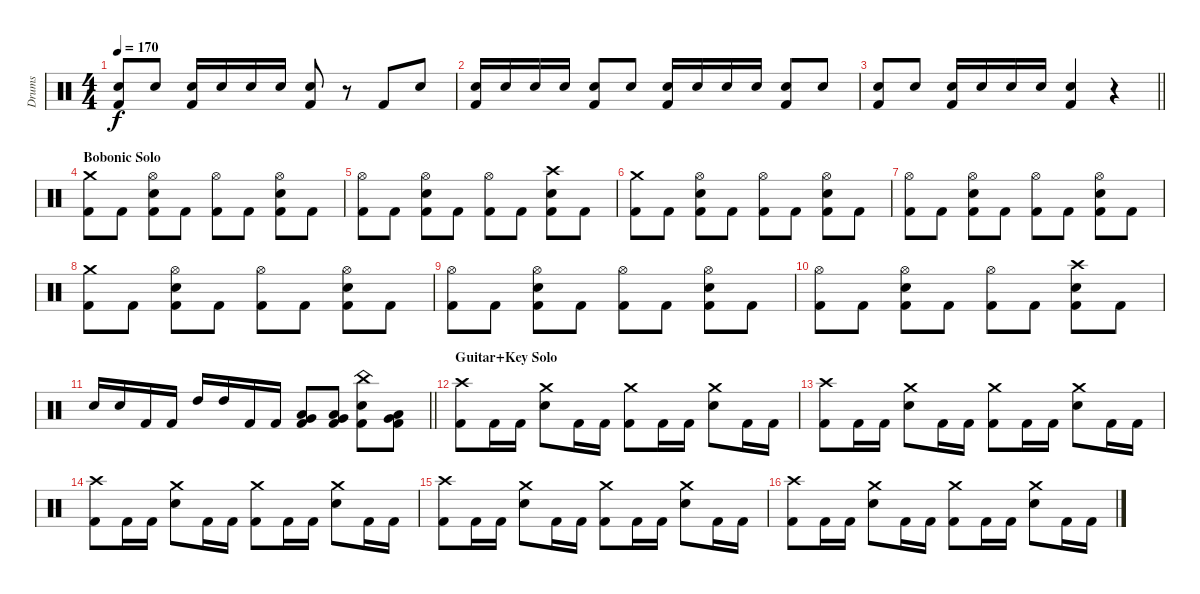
\track ("Drums" "Drums") {instrument percussion}
\staff {score}
\articulation defaults
\ts (4 4)
\tempo 170
\clef neutral
\ks c
("Snare (hit) 2" "Kick (hit) 2").8{dy f} "Snare (hit) 2".8 ("Snare (hit) 2" "Kick (hit) 2").16 "Snare (hit) 2".16 "Snare (hit) 2".16 "Snare (hit) 2".16 ("Snare (hit) 2" "Kick (hit) 2").8 r.8 "Kick (hit) 2".8 "Snare (hit) 2".8 |
("Snare (hit) 2" "Kick (hit) 2").16 "Snare (hit) 2".16 "Snare (hit) 2".16 "Snare (hit) 2".16 ("Snare (hit) 2" "Kick (hit) 2").8 "Snare (hit) 2".8 ("Snare (hit) 2" "Kick (hit) 2").16 "Snare (hit) 2".16 "Snare (hit) 2".16 "Snare (hit) 2".16 ("Snare (hit) 2" "Kick (hit) 2").8 "Snare (hit) 2".8 |
\barLineRight lightlight
("Snare (hit) 2" "Kick (hit) 2").8 "Snare (hit) 2".8 ("Snare (hit) 2" "Kick (hit) 2").16 "Snare (hit) 2".16 "Snare (hit) 2".16 "Snare (hit) 2".16 ("Snare (hit) 2" "Kick (hit) 2").4 r.4 |
\section ("" "Bobonic Solo")
("Crash medium (hit)" "Kick (hit) 2").8 "Kick (hit) 2".8 ("Hi-Hat (open)" "Snare (hit) 2" "Kick (hit) 2").8 "Kick (hit) 2".8 ("Hi-Hat (open)" "Kick (hit) 2").8 "Kick (hit) 2".8 ("Hi-Hat (open)" "Snare (hit) 2" "Kick (hit) 2").8 "Kick (hit) 2".8 |
("Hi-Hat (open)" "Kick (hit) 2").8 "Kick (hit) 2".8 ("Hi-Hat (open)" "Snare (hit) 2" "Kick (hit) 2").8 "Kick (hit) 2".8 ("Hi-Hat (open)" "Kick (hit) 2").8 "Kick (hit) 2".8 ("Crash high (hit)" "Snare (hit) 2" "Kick (hit) 2").8 "Kick (hit) 2".8 |
("Crash medium (hit)" "Kick (hit) 2").8 "Kick (hit) 2".8 ("Hi-Hat (open)" "Snare (hit) 2" "Kick (hit) 2").8 "Kick (hit) 2".8 ("Hi-Hat (open)" "Kick (hit) 2").8 "Kick (hit) 2".8 ("Hi-Hat (open)" "Snare (hit) 2" "Kick (hit) 2").8 "Kick (hit) 2".8 |
("Hi-Hat (open)" "Kick (hit) 2").8 "Kick (hit) 2".8 ("Hi-Hat (open)" "Snare (hit) 2" "Kick (hit) 2").8 "Kick (hit) 2".8 ("Hi-Hat (open)" "Kick (hit) 2").8 "Kick (hit) 2".8 ("Hi-Hat (open)" "Snare (hit) 2" "Kick (hit) 2").8 "Kick (hit) 2".8 |
("Crash medium (hit)" "Kick (hit) 2").8 "Kick (hit) 2".8 ("Hi-Hat (open)" "Snare (hit) 2" "Kick (hit) 2").8 "Kick (hit) 2".8 ("Hi-Hat (open)" "Kick (hit) 2").8 "Kick (hit) 2".8 ("Hi-Hat (open)" "Snare (hit) 2" "Kick (hit) 2").8 "Kick (hit) 2".8 |
("Hi-Hat (open)" "Kick (hit) 2").8 "Kick (hit) 2".8 ("Hi-Hat (open)" "Snare (hit) 2" "Kick (hit) 2").8 "Kick (hit) 2".8 ("Hi-Hat (open)" "Kick (hit) 2").8 "Kick (hit) 2".8 ("Hi-Hat (open)" "Snare (hit) 2" "Kick (hit) 2").8 "Kick (hit) 2".8 |
("Hi-Hat (open)" "Kick (hit) 2").8 "Kick (hit) 2".8 ("Hi-Hat (open)" "Snare (hit) 2" "Kick (hit) 2").8 "Kick (hit) 2".8 ("Hi-Hat (open)" "Kick (hit) 2").8 "Kick (hit) 2".8 ("Crash high (hit)" "Snare (hit) 2" "Kick (hit) 2").8 "Kick (hit) 2".8 |
\barLineRight lightlight "Snare (hit) 2".16 "Snare (hit) 2".16 "Kick (hit) 2".16 "Kick (hit) 2".16 "High Tom (hit)".16 "High Tom (hit)".16 "Kick (hit) 2".16 "Kick (hit) 2".16
("Low Tom (hit)" "Very Low Tom (hit)" "Kick (hit) 2").8 ("Low Tom (hit)" "Very Low Tom (hit)" "Kick (hit) 2").8 ("China (hit)" "Snare (hit) 2" "Kick (hit) 2").8 ("Low Tom (hit)" "Very Low Tom (hit)" "Kick (hit) 2").8 |
\section ("" "Guitar+Key Solo")
("Crash high (hit)" "Kick (hit) 2").8 "Kick (hit) 2".16 "Kick (hit) 2".16 ("Crash medium (hit)" "Snare (hit) 2").8 "Kick (hit) 2".16 "Kick (hit) 2".16 ("Crash medium (hit)" "Kick (hit) 2").8 "Kick (hit) 2".16 "Kick (hit) 2".16 ("Crash medium (hit)" "Snare (hit) 2").8 "Kick (hit) 2".16 "Kick (hit) 2".16 |
("Crash high (hit)" "Kick (hit) 2").8 "Kick (hit) 2".16 "Kick (hit) 2".16 ("Crash medium (hit)" "Snare (hit) 2").8 "Kick (hit) 2".16 "Kick (hit) 2".16 ("Crash medium (hit)" "Kick (hit) 2").8 "Kick (hit) 2".16 "Kick (hit) 2".16 ("Crash medium (hit)" "Snare (hit) 2").8 "Kick (hit) 2".16 "Kick (hit) 2".16 |
("Crash high (hit)" "Kick (hit) 2").8 "Kick (hit) 2".16 "Kick (hit) 2".16 ("Crash medium (hit)" "Snare (hit) 2").8 "Kick (hit) 2".16 "Kick (hit) 2".16 ("Crash medium (hit)" "Kick (hit) 2").8 "Kick (hit) 2".16 "Kick (hit) 2".16 ("Crash medium (hit)" "Snare (hit) 2").8 "Kick (hit) 2".16 "Kick (hit) 2".16 |
("Crash high (hit)" "Kick (hit) 2").8 "Kick (hit) 2".16 "Kick (hit) 2".16 ("Crash medium (hit)" "Snare (hit) 2").8 "Kick (hit) 2".16 "Kick (hit) 2".16 ("Crash medium (hit)" "Kick (hit) 2").8 "Kick (hit) 2".16 "Kick (hit) 2".16 ("Crash medium (hit)" "Snare (hit) 2").8 "Kick (hit) 2".16 "Kick (hit) 2".16 |
("Crash high (hit)" "Kick (hit) 2").8 "Kick (hit) 2".16 "Kick (hit) 2".16 ("Crash medium (hit)" "Snare (hit) 2").8 "Kick (hit) 2".16 "Kick (hit) 2".16 ("Crash medium (hit)" "Kick (hit) 2").8 "Kick (hit) 2".16 "Kick (hit) 2".16 ("Crash medium (hit)" "Snare (hit) 2").8 "Kick (hit) 2".16 "Kick (hit) 2".16
